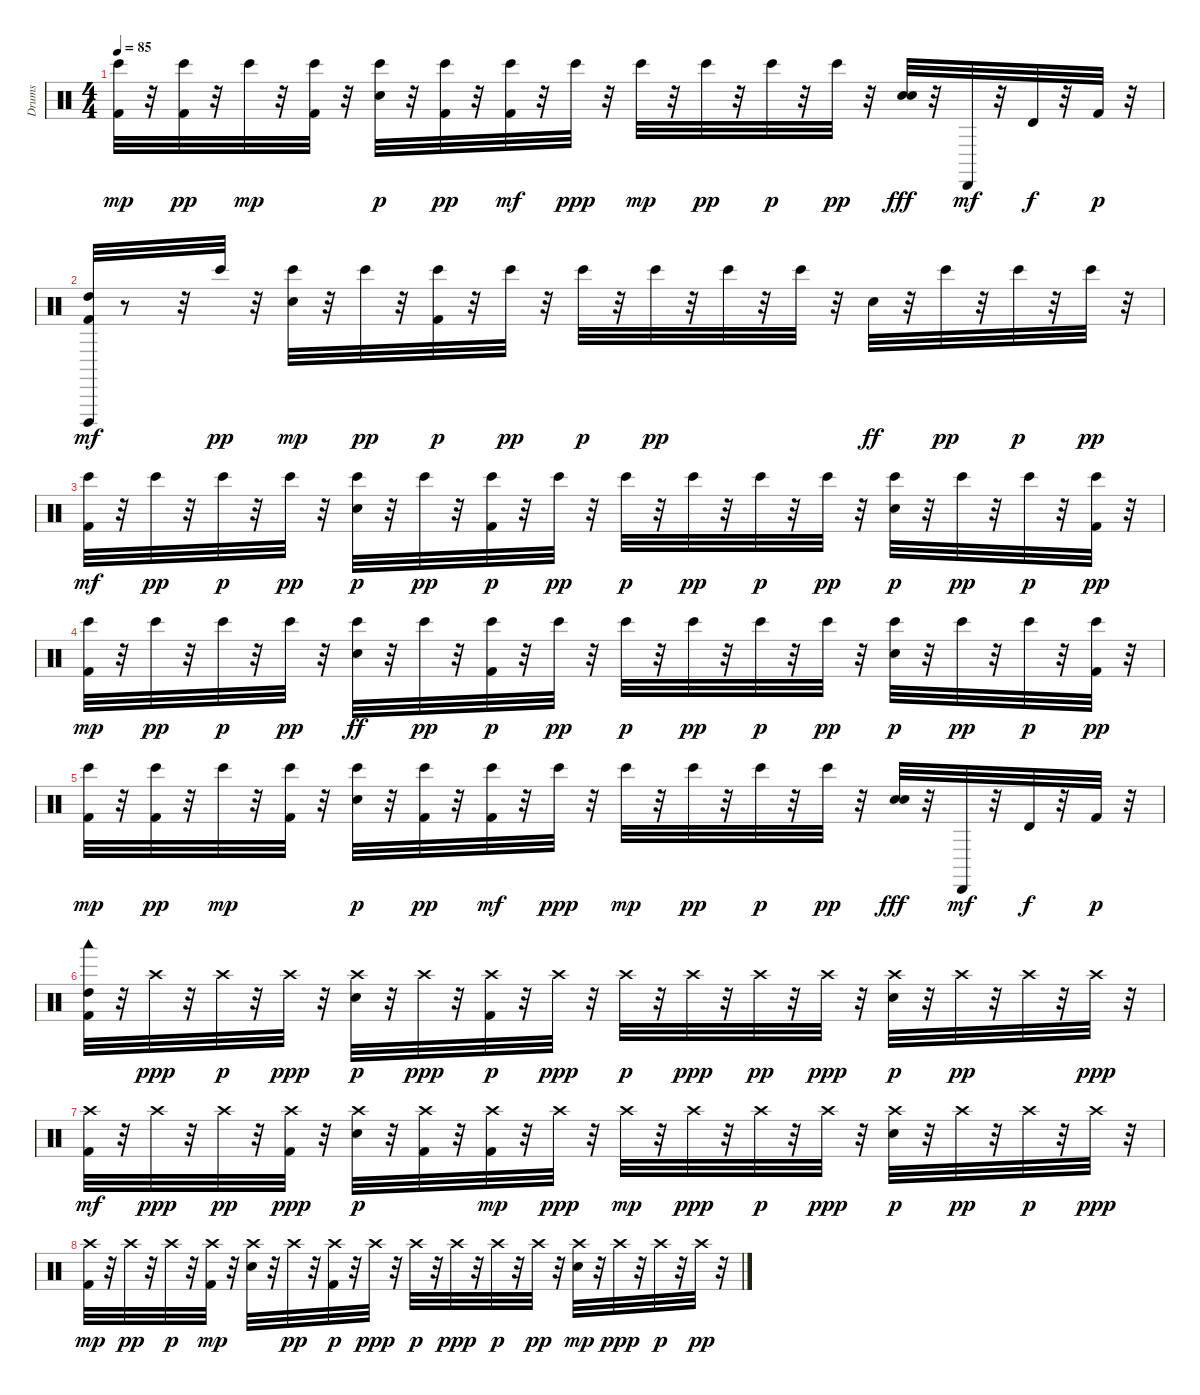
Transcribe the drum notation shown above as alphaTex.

\track ("Drums" "Drums") {instrument percussion}
\staff {score}
\articulation defaults
\ts (4 4)
\tempo 85
\clef neutral
\ks c
("Bongo High (hit)" "Kick (hit) 2").32{dy mp} r.32 ("Kick (hit) 2" "Bongo High (hit)").32{dy pp} r.32 "Bongo High (hit)".32{dy mp} r.32 ("Bongo High (hit)" "Kick (hit) 2").32 r.32 ("Snare (hit) 2" "Bongo High (hit)").32{dy p} r.32 ("Kick (hit) 2" "Bongo High (hit)").32{dy pp} r.32 ("Kick (hit) 2" "Bongo High (hit)").32{dy mf} r.32 "Bongo High (hit)".32{dy ppp} r.32 "Bongo High (hit)".32{dy mp} r.32 "Bongo High (hit)".32{dy pp} r.32 "Bongo High (hit)".32{dy p} r.32 "Bongo High (hit)".32{dy pp} r.32 ("Snare (hit) 2" "Snare (hit) 2").32{dy fff} r.32 "Cabasa (hit)".32{dy mf} r.32 "Timbale high (hit)".32{dy f} r.32 "Kick (hit) 2".32{dy p} r.32 |
("Kick (hit) 2" "High Tom (hit)" "Cuica (open)").32{dy mf} r.8 r.32 "Bongo High (hit)".32{dy pp} r.32 ("Snare (hit) 2" "Bongo High (hit)").32{dy mp} r.32 "Bongo High (hit)".32{dy pp} r.32 ("Kick (hit) 2" "Bongo High (hit)").32{dy p} r.32 "Bongo High (hit)".32{dy pp} r.32 "Bongo High (hit)".32{dy p} r.32 "Bongo High (hit)".32{dy pp} r.32 "Bongo High (hit)".32 r.32 "Bongo High (hit)".32 r.32 "Snare (hit) 2".32{dy ff} r.32 "Bongo High (hit)".32{dy pp} r.32 "Bongo High (hit)".32{dy p} r.32 "Bongo High (hit)".32{dy pp} r.32 |
("Bongo High (hit)" "Kick (hit) 2").32{dy mf} r.32 "Bongo High (hit)".32{dy pp} r.32 "Bongo High (hit)".32{dy p} r.32 "Bongo High (hit)".32{dy pp} r.32 ("Snare (hit) 2" "Bongo High (hit)").32{dy p} r.32 "Bongo High (hit)".32{dy pp} r.32 ("Kick (hit) 2" "Bongo High (hit)").32{dy p} r.32 "Bongo High (hit)".32{dy pp} r.32 "Bongo High (hit)".32{dy p} r.32 "Bongo High (hit)".32{dy pp} r.32 "Bongo High (hit)".32{dy p} r.32 "Bongo High (hit)".32{dy pp} r.32 ("Snare (hit) 2" "Bongo High (hit)").32{dy p} r.32 "Bongo High (hit)".32{dy pp} r.32 "Bongo High (hit)".32{dy p} r.32 ("Bongo High (hit)" "Kick (hit) 2").32{dy pp} r.32 |
("Kick (hit) 2" "Bongo High (hit)").32{dy mp} r.32 "Bongo High (hit)".32{dy pp} r.32 "Bongo High (hit)".32{dy p} r.32 "Bongo High (hit)".32{dy pp} r.32 ("Bongo High (hit)" "Snare (hit) 2").32{dy ff} r.32 "Bongo High (hit)".32{dy pp} r.32 ("Kick (hit) 2" "Bongo High (hit)").32{dy p} r.32 "Bongo High (hit)".32{dy pp} r.32 "Bongo High (hit)".32{dy p} r.32 "Bongo High (hit)".32{dy pp} r.32 "Bongo High (hit)".32{dy p} r.32 "Bongo High (hit)".32{dy pp} r.32 ("Snare (hit) 2" "Bongo High (hit)").32{dy p} r.32 "Bongo High (hit)".32{dy pp} r.32 "Bongo High (hit)".32{dy p} r.32 ("Kick (hit) 2" "Bongo High (hit)").32{dy pp} r.32 |
("Bongo High (hit)" "Kick (hit) 2").32{dy mp} r.32 ("Kick (hit) 2" "Bongo High (hit)").32{dy pp} r.32 "Bongo High (hit)".32{dy mp} r.32 ("Bongo High (hit)" "Kick (hit) 2").32 r.32 ("Snare (hit) 2" "Bongo High (hit)").32{dy p} r.32 ("Kick (hit) 2" "Bongo High (hit)").32{dy pp} r.32 ("Kick (hit) 2" "Bongo High (hit)").32{dy mf} r.32 "Bongo High (hit)".32{dy ppp} r.32 "Bongo High (hit)".32{dy mp} r.32 "Bongo High (hit)".32{dy pp} r.32 "Bongo High (hit)".32{dy p} r.32 "Bongo High (hit)".32{dy pp} r.32 ("Snare (hit) 2" "Snare (hit) 2").32{dy fff} r.32 "Cabasa (hit)".32{dy mf} r.32 "Timbale high (hit)".32{dy f} r.32 "Kick (hit) 2".32{dy p} r.32 |
("Kick (hit) 2" "High Tom (hit)" "Woodblock low (hit)").32 r.32 "Crash high (hit)".32{dy ppp} r.32 "Crash high (hit)".32{dy p} r.32 "Crash high (hit)".32{dy ppp} r.32 ("Snare (hit) 2" "Crash high (hit)").32{dy p} r.32 "Crash high (hit)".32{dy ppp} r.32 ("Kick (hit) 2" "Crash high (hit)").32{dy p} r.32 "Crash high (hit)".32{dy ppp} r.32 "Crash high (hit)".32{dy p} r.32 "Crash high (hit)".32{dy ppp} r.32 "Crash high (hit)".32{dy pp} r.32 "Crash high (hit)".32{dy ppp} r.32 ("Crash high (hit)" "Snare (hit) 2").32{dy p} r.32 "Crash high (hit)".32{dy pp} r.32 "Crash high (hit)".32 r.32 "Crash high (hit)".32{dy ppp} r.32 |
("Crash high (hit)" "Kick (hit) 2").32{dy mf} r.32 "Crash high (hit)".32{dy ppp} r.32 "Crash high (hit)".32{dy pp} r.32 ("Kick (hit) 2" "Crash high (hit)").32{dy ppp} r.32 ("Snare (hit) 2" "Crash high (hit)").32{dy p} r.32 ("Crash high (hit)" "Kick (hit) 2").32 r.32 ("Kick (hit) 2" "Crash high (hit)").32{dy mp} r.32 "Crash high (hit)".32{dy ppp} r.32 "Crash high (hit)".32{dy mp} r.32 "Crash high (hit)".32{dy ppp} r.32 "Crash high (hit)".32{dy p} r.32 "Crash high (hit)".32{dy ppp} r.32 ("Snare (hit) 2" "Crash high (hit)").32{dy p} r.32 "Crash high (hit)".32{dy pp} r.32 "Crash high (hit)".32{dy p} r.32 "Crash high (hit)".32{dy ppp} r.32 |
("Crash high (hit)" "Kick (hit) 2").32{dy mp} r.32 "Crash high (hit)".32{dy pp} r.32 "Crash high (hit)".32{dy p} r.32 ("Crash high (hit)" "Kick (hit) 2").32{dy mp} r.32 ("Snare (hit) 2" "Crash high (hit)").32 r.32 "Crash high (hit)".32{dy pp} r.32 ("Kick (hit) 2" "Crash high (hit)").32{dy p} r.32 "Crash high (hit)".32{dy ppp} r.32 "Crash high (hit)".32{dy p} r.32 "Crash high (hit)".32{dy ppp} r.32 "Crash high (hit)".32{dy p} r.32 "Crash high (hit)".32{dy pp} r.32 ("Snare (hit) 2" "Crash high (hit)").32{dy mp} r.32 "Crash high (hit)".32{dy ppp} r.32 "Crash high (hit)".32{dy p} r.32 "Crash high (hit)".32{dy pp} r.32
